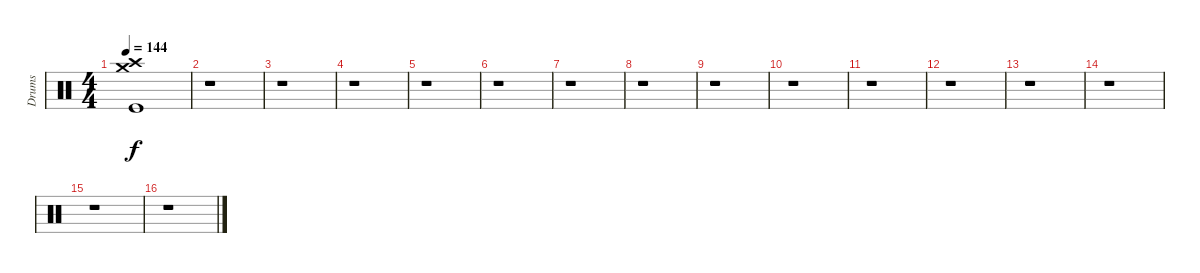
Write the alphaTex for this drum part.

\track ("Drums" "Drums") {instrument percussion}
\staff {score}
\articulation defaults
\ts (4 4)
\tempo 144
\clef neutral
\ks c
("Crash medium (hit)" "Crash high (hit)" "Kick (hit)").1{dy f} |
r.1 |
r.1 |
r.1 |
r.1 |
r.1 |
r.1 |
r.1 |
r.1 |
r.1 |
r.1 |
r.1 |
r.1 |
r.1 |
r.1 |
r.1
